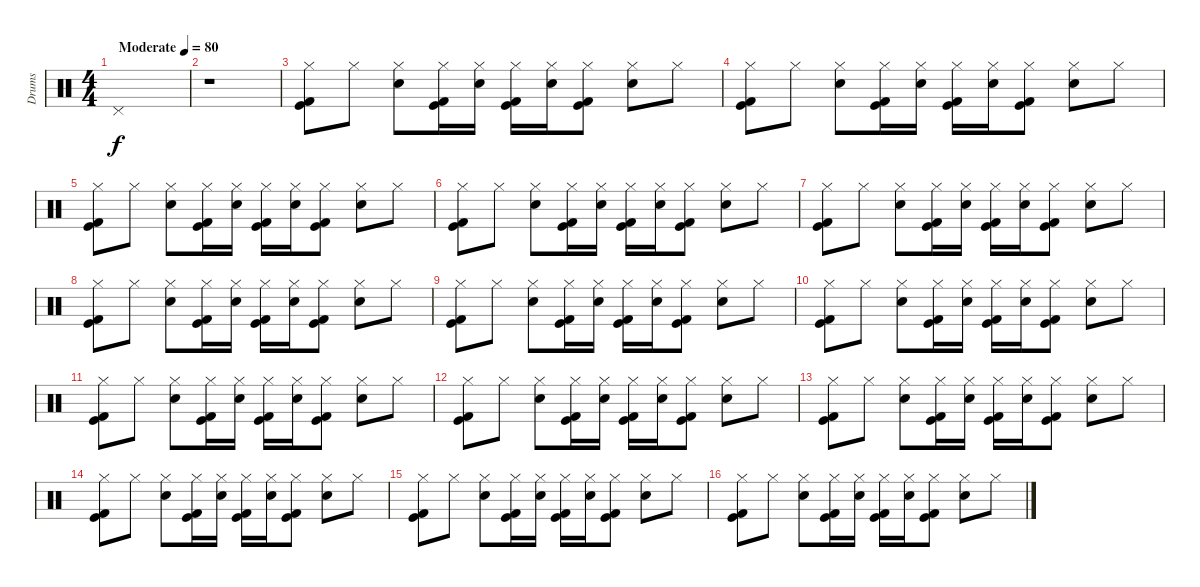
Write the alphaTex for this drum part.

\track ("Drums" "Drums") {instrument percussion}
\staff {score}
\articulation defaults
\ts (4 4)
\tempo (80 "Moderate")
\clef neutral
\ks c "Pedal Hi-Hat (hit)".1{dy f}
|
r.1 |
("Hi-Hat (closed)" "Kick (hit)" "Kick (hit) 2").8 "Hi-Hat (closed)".8 ("Hi-Hat (closed)" "Snare (hit) 2").8 ("Hi-Hat (closed)" "Kick (hit)" "Kick (hit) 2").16 ("Hi-Hat (closed)" "Snare (hit) 2").16 ("Hi-Hat (closed)" "Kick (hit)" "Kick (hit) 2").16 ("Hi-Hat (closed)" "Snare (hit) 2").16 ("Hi-Hat (closed)" "Kick (hit)" "Kick (hit) 2").8 ("Hi-Hat (closed)" "Snare (hit) 2").8 "Hi-Hat (closed)".8 |
("Hi-Hat (closed)" "Kick (hit)" "Kick (hit) 2").8 "Hi-Hat (closed)".8 ("Hi-Hat (closed)" "Snare (hit) 2").8 ("Hi-Hat (closed)" "Kick (hit)" "Kick (hit) 2").16 ("Hi-Hat (closed)" "Snare (hit) 2").16 ("Hi-Hat (closed)" "Kick (hit)" "Kick (hit) 2").16 ("Hi-Hat (closed)" "Snare (hit) 2").16 ("Hi-Hat (closed)" "Kick (hit)" "Kick (hit) 2").8 ("Hi-Hat (closed)" "Snare (hit) 2").8 "Hi-Hat (closed)".8 |
("Hi-Hat (closed)" "Kick (hit)" "Kick (hit) 2").8 "Hi-Hat (closed)".8 ("Hi-Hat (closed)" "Snare (hit) 2").8 ("Hi-Hat (closed)" "Kick (hit)" "Kick (hit) 2").16 ("Hi-Hat (closed)" "Snare (hit) 2").16 ("Hi-Hat (closed)" "Kick (hit)" "Kick (hit) 2").16 ("Hi-Hat (closed)" "Snare (hit) 2").16 ("Hi-Hat (closed)" "Kick (hit)" "Kick (hit) 2").8 ("Hi-Hat (closed)" "Snare (hit) 2").8 "Hi-Hat (closed)".8 |
("Hi-Hat (closed)" "Kick (hit)" "Kick (hit) 2").8 "Hi-Hat (closed)".8 ("Hi-Hat (closed)" "Snare (hit) 2").8 ("Hi-Hat (closed)" "Kick (hit)" "Kick (hit) 2").16 ("Hi-Hat (closed)" "Snare (hit) 2").16 ("Hi-Hat (closed)" "Kick (hit)" "Kick (hit) 2").16 ("Hi-Hat (closed)" "Snare (hit) 2").16 ("Hi-Hat (closed)" "Kick (hit)" "Kick (hit) 2").8 ("Hi-Hat (closed)" "Snare (hit) 2").8 "Hi-Hat (closed)".8 |
("Hi-Hat (closed)" "Kick (hit)" "Kick (hit) 2").8 "Hi-Hat (closed)".8 ("Hi-Hat (closed)" "Snare (hit) 2").8 ("Hi-Hat (closed)" "Kick (hit)" "Kick (hit) 2").16 ("Hi-Hat (closed)" "Snare (hit) 2").16 ("Hi-Hat (closed)" "Kick (hit)" "Kick (hit) 2").16 ("Hi-Hat (closed)" "Snare (hit) 2").16 ("Hi-Hat (closed)" "Kick (hit)" "Kick (hit) 2").8 ("Hi-Hat (closed)" "Snare (hit) 2").8 "Hi-Hat (closed)".8 |
("Hi-Hat (closed)" "Kick (hit)" "Kick (hit) 2").8 "Hi-Hat (closed)".8 ("Hi-Hat (closed)" "Snare (hit) 2").8 ("Hi-Hat (closed)" "Kick (hit)" "Kick (hit) 2").16 ("Hi-Hat (closed)" "Snare (hit) 2").16 ("Hi-Hat (closed)" "Kick (hit)" "Kick (hit) 2").16 ("Hi-Hat (closed)" "Snare (hit) 2").16 ("Hi-Hat (closed)" "Kick (hit)" "Kick (hit) 2").8 ("Hi-Hat (closed)" "Snare (hit) 2").8 "Hi-Hat (closed)".8 |
("Hi-Hat (closed)" "Kick (hit)" "Kick (hit) 2").8 "Hi-Hat (closed)".8 ("Hi-Hat (closed)" "Snare (hit) 2").8 ("Hi-Hat (closed)" "Kick (hit)" "Kick (hit) 2").16 ("Hi-Hat (closed)" "Snare (hit) 2").16 ("Hi-Hat (closed)" "Kick (hit)" "Kick (hit) 2").16 ("Hi-Hat (closed)" "Snare (hit) 2").16 ("Hi-Hat (closed)" "Kick (hit)" "Kick (hit) 2").8 ("Hi-Hat (closed)" "Snare (hit) 2").8 "Hi-Hat (closed)".8 |
("Hi-Hat (closed)" "Kick (hit)" "Kick (hit) 2").8 "Hi-Hat (closed)".8 ("Hi-Hat (closed)" "Snare (hit) 2").8 ("Hi-Hat (closed)" "Kick (hit)" "Kick (hit) 2").16 ("Hi-Hat (closed)" "Snare (hit) 2").16 ("Hi-Hat (closed)" "Kick (hit)" "Kick (hit) 2").16 ("Hi-Hat (closed)" "Snare (hit) 2").16 ("Hi-Hat (closed)" "Kick (hit)" "Kick (hit) 2").8 ("Hi-Hat (closed)" "Snare (hit) 2").8 "Hi-Hat (closed)".8 |
("Hi-Hat (closed)" "Kick (hit)" "Kick (hit) 2").8 "Hi-Hat (closed)".8 ("Hi-Hat (closed)" "Snare (hit) 2").8 ("Hi-Hat (closed)" "Kick (hit)" "Kick (hit) 2").16 ("Hi-Hat (closed)" "Snare (hit) 2").16 ("Hi-Hat (closed)" "Kick (hit)" "Kick (hit) 2").16 ("Hi-Hat (closed)" "Snare (hit) 2").16 ("Hi-Hat (closed)" "Kick (hit)" "Kick (hit) 2").8 ("Hi-Hat (closed)" "Snare (hit) 2").8 "Hi-Hat (closed)".8 |
("Hi-Hat (closed)" "Kick (hit)" "Kick (hit) 2").8 "Hi-Hat (closed)".8 ("Hi-Hat (closed)" "Snare (hit) 2").8 ("Hi-Hat (closed)" "Kick (hit)" "Kick (hit) 2").16 ("Hi-Hat (closed)" "Snare (hit) 2").16 ("Hi-Hat (closed)" "Kick (hit)" "Kick (hit) 2").16 ("Hi-Hat (closed)" "Snare (hit) 2").16 ("Hi-Hat (closed)" "Kick (hit)" "Kick (hit) 2").8 ("Hi-Hat (closed)" "Snare (hit) 2").8 "Hi-Hat (closed)".8 |
("Hi-Hat (closed)" "Kick (hit)" "Kick (hit) 2").8 "Hi-Hat (closed)".8 ("Hi-Hat (closed)" "Snare (hit) 2").8 ("Hi-Hat (closed)" "Kick (hit)" "Kick (hit) 2").16 ("Hi-Hat (closed)" "Snare (hit) 2").16 ("Hi-Hat (closed)" "Kick (hit)" "Kick (hit) 2").16 ("Hi-Hat (closed)" "Snare (hit) 2").16 ("Hi-Hat (closed)" "Kick (hit)" "Kick (hit) 2").8 ("Hi-Hat (closed)" "Snare (hit) 2").8 "Hi-Hat (closed)".8 |
("Hi-Hat (closed)" "Kick (hit)" "Kick (hit) 2").8 "Hi-Hat (closed)".8 ("Hi-Hat (closed)" "Snare (hit) 2").8 ("Hi-Hat (closed)" "Kick (hit)" "Kick (hit) 2").16 ("Hi-Hat (closed)" "Snare (hit) 2").16 ("Hi-Hat (closed)" "Kick (hit)" "Kick (hit) 2").16 ("Hi-Hat (closed)" "Snare (hit) 2").16 ("Hi-Hat (closed)" "Kick (hit)" "Kick (hit) 2").8 ("Hi-Hat (closed)" "Snare (hit) 2").8 "Hi-Hat (closed)".8 |
("Hi-Hat (closed)" "Kick (hit)" "Kick (hit) 2").8 "Hi-Hat (closed)".8 ("Hi-Hat (closed)" "Snare (hit) 2").8 ("Hi-Hat (closed)" "Kick (hit)" "Kick (hit) 2").16 ("Hi-Hat (closed)" "Snare (hit) 2").16 ("Hi-Hat (closed)" "Kick (hit)" "Kick (hit) 2").16 ("Hi-Hat (closed)" "Snare (hit) 2").16 ("Hi-Hat (closed)" "Kick (hit)" "Kick (hit) 2").8 ("Hi-Hat (closed)" "Snare (hit) 2").8 "Hi-Hat (closed)".8 |
("Hi-Hat (closed)" "Kick (hit)" "Kick (hit) 2").8 "Hi-Hat (closed)".8 ("Hi-Hat (closed)" "Snare (hit) 2").8 ("Hi-Hat (closed)" "Kick (hit)" "Kick (hit) 2").16 ("Hi-Hat (closed)" "Snare (hit) 2").16 ("Hi-Hat (closed)" "Kick (hit)" "Kick (hit) 2").16 ("Hi-Hat (closed)" "Snare (hit) 2").16 ("Hi-Hat (closed)" "Kick (hit)" "Kick (hit) 2").8 ("Hi-Hat (closed)" "Snare (hit) 2").8 "Hi-Hat (closed)".8
